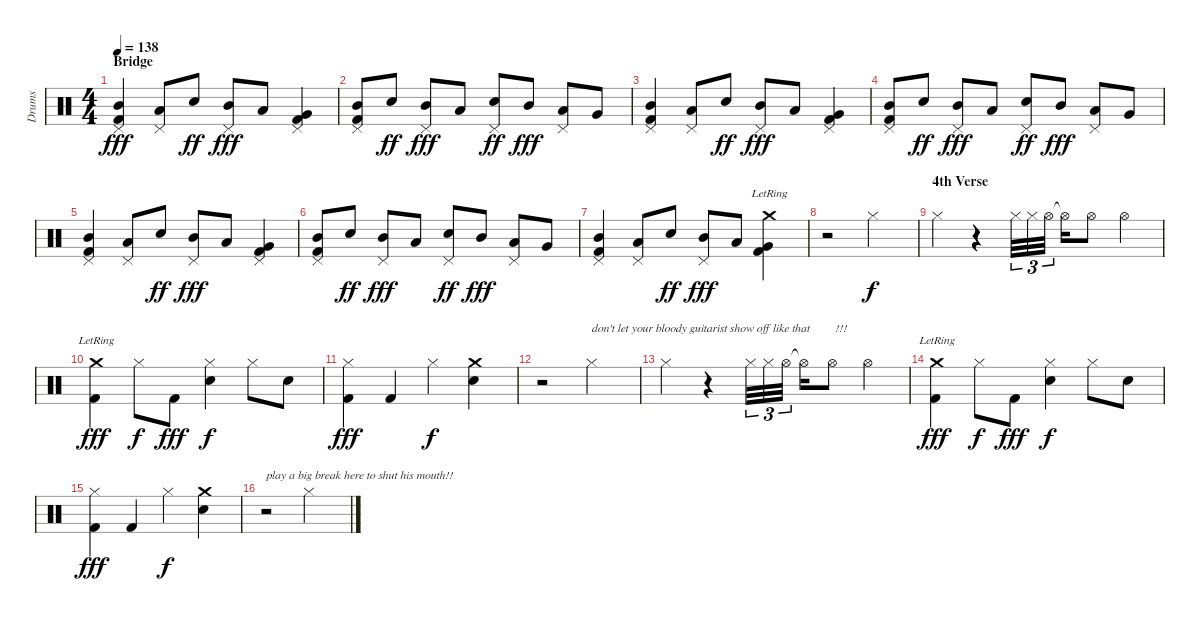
\track ("Drums" "Drums") {instrument percussion}
\staff {score}
\articulation defaults
\ts (4 4)
\section ("" "Bridge")
\tempo 138
\clef neutral
\ks c
("Pedal Hi-Hat (hit)" "Mid Tom (hit)" "Kick (hit) 2").4{dy fff} ("Pedal Hi-Hat (hit)" "Low Tom (hit)").8 "Snare (hit) 2".8{dy ff} ("Pedal Hi-Hat (hit)" "Mid Tom (hit)").8{dy fff} "Low Tom (hit)".8 ("Pedal Hi-Hat (hit)" "Very Low Tom (hit)" "Kick (hit) 2").4 |
("Pedal Hi-Hat (hit)" "Mid Tom (hit)" "Kick (hit) 2").8 "Snare (hit) 2".8{dy ff} ("Pedal Hi-Hat (hit)" "Mid Tom (hit)").8{dy fff} "Low Tom (hit)".8 ("Pedal Hi-Hat (hit)" "Snare (hit) 2").8{dy ff} "Mid Tom (hit)".8{dy fff} ("Pedal Hi-Hat (hit)" "Low Tom (hit)").8 "Very Low Tom (hit)".8 |
("Pedal Hi-Hat (hit)" "Mid Tom (hit)" "Kick (hit) 2").4 ("Pedal Hi-Hat (hit)" "Low Tom (hit)").8 "Snare (hit) 2".8{dy ff} ("Pedal Hi-Hat (hit)" "Mid Tom (hit)").8{dy fff} "Low Tom (hit)".8 ("Pedal Hi-Hat (hit)" "Very Low Tom (hit)" "Kick (hit) 2").4 |
("Pedal Hi-Hat (hit)" "Mid Tom (hit)" "Kick (hit) 2").8 "Snare (hit) 2".8{dy ff} ("Pedal Hi-Hat (hit)" "Mid Tom (hit)").8{dy fff} "Low Tom (hit)".8 ("Pedal Hi-Hat (hit)" "Snare (hit) 2").8{dy ff} "Mid Tom (hit)".8{dy fff} ("Pedal Hi-Hat (hit)" "Low Tom (hit)").8 "Very Low Tom (hit)".8 |
("Pedal Hi-Hat (hit)" "Mid Tom (hit)" "Kick (hit) 2").4 ("Pedal Hi-Hat (hit)" "Low Tom (hit)").8 "Snare (hit) 2".8{dy ff} ("Pedal Hi-Hat (hit)" "Mid Tom (hit)").8{dy fff} "Low Tom (hit)".8 ("Pedal Hi-Hat (hit)" "Very Low Tom (hit)" "Kick (hit) 2").4 |
("Pedal Hi-Hat (hit)" "Mid Tom (hit)" "Kick (hit) 2").8 "Snare (hit) 2".8{dy ff} ("Pedal Hi-Hat (hit)" "Mid Tom (hit)").8{dy fff} "Low Tom (hit)".8 ("Pedal Hi-Hat (hit)" "Snare (hit) 2").8{dy ff} "Mid Tom (hit)".8{dy fff} ("Pedal Hi-Hat (hit)" "Low Tom (hit)").8 "Very Low Tom (hit)".8 |
("Pedal Hi-Hat (hit)" "Mid Tom (hit)" "Kick (hit) 2").4 ("Pedal Hi-Hat (hit)" "Low Tom (hit)").8 "Snare (hit) 2".8{dy ff} ("Pedal Hi-Hat (hit)" "Mid Tom (hit)").8{dy fff} "Low Tom (hit)".8 ("Crash medium (hit)"{lr} "Very Low Tom (hit)" "Kick (hit) 2").4 |
r.2 "Hi-Hat (closed)".2{dy f} |
\section ("" "4th Verse")
"Hi-Hat (closed)".4 r.4 "Hi-Hat (closed)".32{tu (3 2)} "Hi-Hat (closed)".32{tu (3 2)} "Hi-Hat (open)".32{tu (3 2)} "Hi-Hat (open)"{t}.16 "Hi-Hat (open)".8 "Hi-Hat (open)".4 |
("Crash medium (hit)"{lr} "Kick (hit) 2").4{dy fff} "Hi-Hat (closed)".8{dy f} "Kick (hit) 2".8{dy fff} ("Hi-Hat (closed)" "Snare (hit) 2").4{dy f} "Hi-Hat (closed)".8 "Snare (hit) 2".8 |
("Hi-Hat (closed)" "Kick (hit) 2").4{dy fff} "Kick (hit) 2".4 "Hi-Hat (closed)".4{dy f} ("Crash medium (hit)" "Snare (hit) 2").4 |
r.2 "Hi-Hat (closed)".2{txt "don't let your bloody guitarist show off like that"} |
"Hi-Hat (closed)".4 r.4 "Hi-Hat (closed)".32{tu (3 2)} "Hi-Hat (closed)".32{tu (3 2)} "Hi-Hat (open)".32{tu (3 2)} "Hi-Hat (open)"{t}.16 "Hi-Hat (open)".8{txt " !!!"} "Hi-Hat (open)".4 |
("Crash medium (hit)"{lr} "Kick (hit) 2").4{dy fff} "Hi-Hat (closed)".8{dy f} "Kick (hit) 2".8{dy fff} ("Hi-Hat (closed)" "Snare (hit) 2").4{dy f} "Hi-Hat (closed)".8 "Snare (hit) 2".8 |
("Hi-Hat (closed)" "Kick (hit) 2").4{dy fff} "Kick (hit) 2".4 "Hi-Hat (closed)".4{dy f} ("Crash medium (hit)" "Snare (hit) 2").4 |
r.2{txt "play a big break here to shut his mouth!!"} "Hi-Hat (closed)".2
